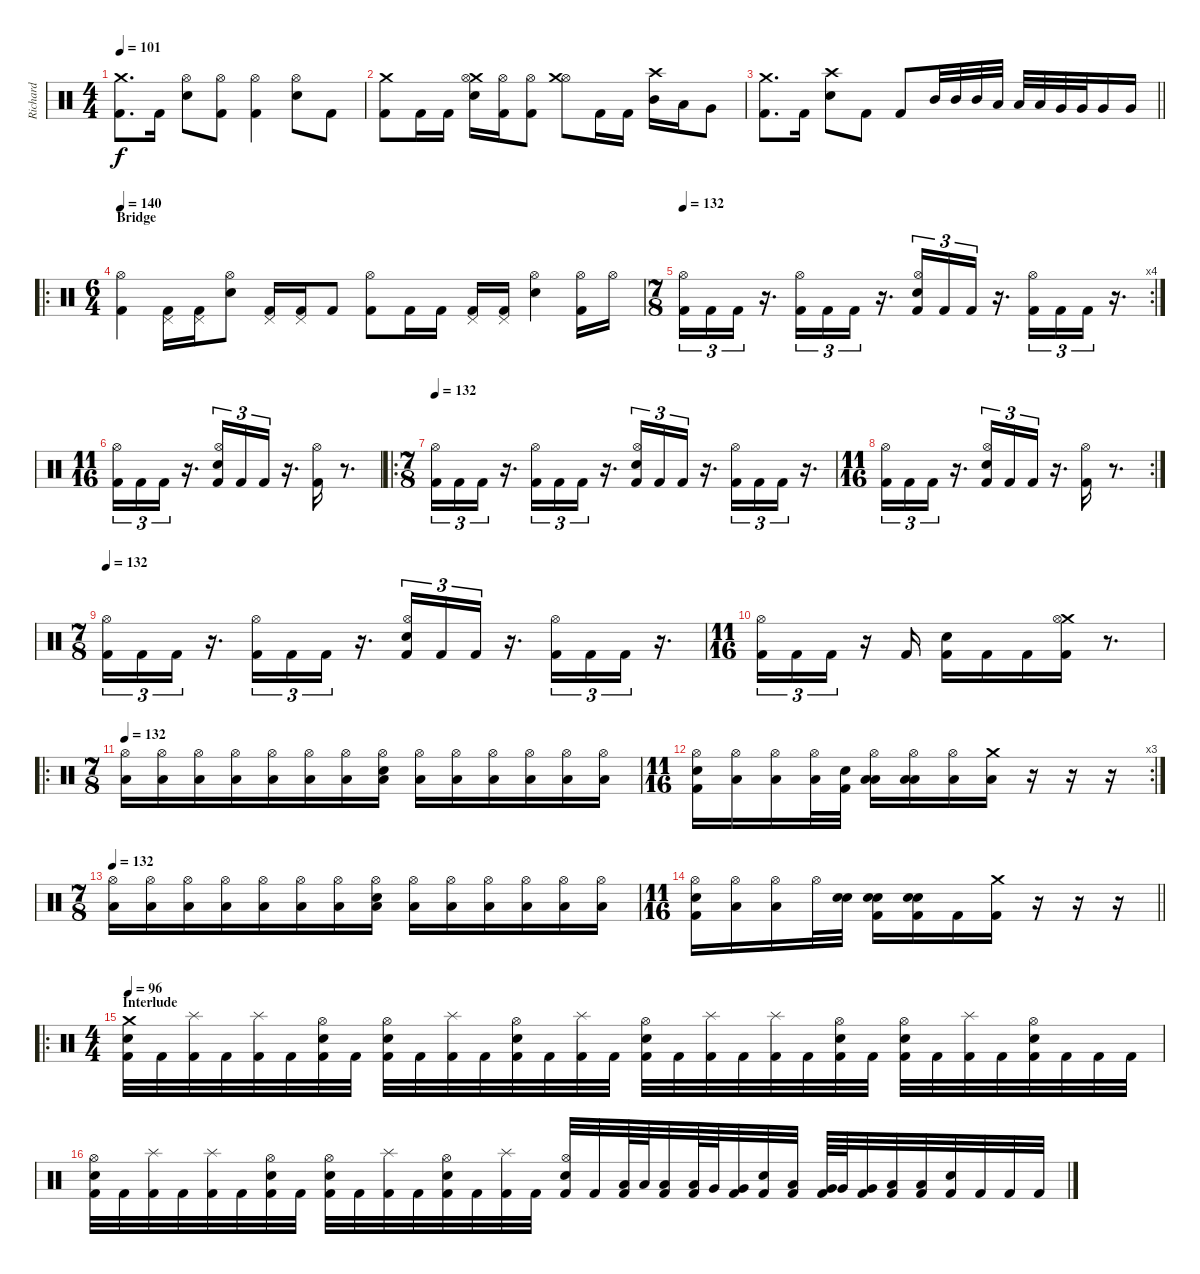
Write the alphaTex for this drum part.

\track ("Richard" "Richard") {instrument percussion}
\staff {score}
\articulation defaults
\ts (4 4)
\tempo 101
\clef neutral
\ks c
("Crash medium (hit)" "Kick (hit) 2").8{d dy f} "Kick (hit) 2".16 ("Hi-Hat (open)" "Electric Snare (hit)").8 ("Hi-Hat (open)" "Kick (hit) 2").8 ("Hi-Hat (open)" "Kick (hit) 2").4 ("Hi-Hat (open)" "Electric Snare (hit)").8 "Kick (hit) 2".8 |
("Crash medium (hit)" "Kick (hit) 2").8 "Kick (hit) 2".16 "Kick (hit) 2".16 ("Crash medium (hit)" "Hi-Hat (open)" "Electric Snare (hit)").16 ("Hi-Hat (open)" "Kick (hit) 2").16 ("Hi-Hat (open)" "Kick (hit) 2").8 ("Hi-Hat (open)" "Crash medium (hit)").8 "Kick (hit) 2".16 "Kick (hit) 2".16 ("Crash high (hit)" "Mid Tom (hit)").16 "Low Tom (hit)".16 "Very Low Tom (hit)".8 |
\barLineRight lightlight
("Crash medium (hit)" "Kick (hit) 2").8{d} "Kick (hit) 2".16 ("Crash high (hit)" "Electric Snare (hit)").8 "Kick (hit) 2".8 "Kick (hit) 2".8 "Mid Tom (hit)".32 "Mid Tom (hit)".32 "Mid Tom (hit)".32 "Low Tom (hit)".32 "Low Tom (hit)".32 "Low Tom (hit)".32 "Very Low Tom (hit)".32 "Very Low Tom (hit)".32 "Very Low Tom (hit)".16 "Very Low Tom (hit)".16 |
\ro
\ts (6 4)
\section ("" "Bridge")
\tempo 140
("Hi-Hat (open)" "Kick (hit) 2").4 ("Pedal Hi-Hat (hit)" "Kick (hit) 2").16 ("Pedal Hi-Hat (hit)" "Kick (hit) 2").16 ("Hi-Hat (open)" "Electric Snare (hit)").8 ("Pedal Hi-Hat (hit)" "Kick (hit) 2").16 ("Pedal Hi-Hat (hit)" "Kick (hit) 2").16 "Kick (hit) 2".8 ("Hi-Hat (open)" "Kick (hit) 2").8 "Kick (hit) 2".16 "Kick (hit) 2".16 ("Pedal Hi-Hat (hit)" "Kick (hit) 2").16 ("Pedal Hi-Hat (hit)" "Kick (hit) 2").16 ("Hi-Hat (open)" "Electric Snare (hit)").4 ("Hi-Hat (open)" "Kick (hit) 2").16 "Hi-Hat (open)".16 |
\rc 4
\ts (7 8)
\tempo 132
("Hi-Hat (open)" "Kick (hit) 2").16{tu (3 2)} "Kick (hit) 2".16{tu (3 2)} "Kick (hit) 2".16{tu (3 2)} r.16{d} ("Hi-Hat (open)" "Kick (hit) 2").16{tu (3 2)} "Kick (hit) 2".16{tu (3 2)} "Kick (hit) 2".16{tu (3 2)} r.16{d} ("Hi-Hat (open)" "Electric Snare (hit)" "Kick (hit) 2").16{tu (3 2)} "Kick (hit) 2".16{tu (3 2)} "Kick (hit) 2".16{tu (3 2)} r.16{d} ("Hi-Hat (open)" "Kick (hit) 2").16{tu (3 2)} "Kick (hit) 2".16{tu (3 2)} "Kick (hit) 2".16{tu (3 2)} r.16{d} |
\ts (11 16)
("Hi-Hat (open)" "Kick (hit) 2").16{tu (3 2)} "Kick (hit) 2".16{tu (3 2)} "Kick (hit) 2".16{tu (3 2)} r.16{d} ("Electric Snare (hit)" "Hi-Hat (open)" "Kick (hit) 2").16{tu (3 2)} "Kick (hit) 2".16{tu (3 2)} "Kick (hit) 2".16{tu (3 2)} r.16{d} ("Hi-Hat (open)" "Kick (hit) 2").16 r.8{d} |
\ro
\ts (7 8)
\tempo 132
("Hi-Hat (open)" "Kick (hit) 2").16{tu (3 2)} "Kick (hit) 2".16{tu (3 2)} "Kick (hit) 2".16{tu (3 2)} r.16{d} ("Hi-Hat (open)" "Kick (hit) 2").16{tu (3 2)} "Kick (hit) 2".16{tu (3 2)} "Kick (hit) 2".16{tu (3 2)} r.16{d} ("Hi-Hat (open)" "Electric Snare (hit)" "Kick (hit) 2").16{tu (3 2)} "Kick (hit) 2".16{tu (3 2)} "Kick (hit) 2".16{tu (3 2)} r.16{d} ("Hi-Hat (open)" "Kick (hit) 2").16{tu (3 2)} "Kick (hit) 2".16{tu (3 2)} "Kick (hit) 2".16{tu (3 2)} r.16{d} |
\rc 2
\ts (11 16)
("Hi-Hat (open)" "Kick (hit) 2").16{tu (3 2)} "Kick (hit) 2".16{tu (3 2)} "Kick (hit) 2".16{tu (3 2)} r.16{d} ("Electric Snare (hit)" "Hi-Hat (open)" "Kick (hit) 2").16{tu (3 2)} "Kick (hit) 2".16{tu (3 2)} "Kick (hit) 2".16{tu (3 2)} r.16{d} ("Hi-Hat (open)" "Kick (hit) 2").16 r.8{d} |
\ts (7 8)
\tempo 132
("Hi-Hat (open)" "Kick (hit) 2").16{tu (3 2)} "Kick (hit) 2".16{tu (3 2)} "Kick (hit) 2".16{tu (3 2)} r.16{d} ("Hi-Hat (open)" "Kick (hit) 2").16{tu (3 2)} "Kick (hit) 2".16{tu (3 2)} "Kick (hit) 2".16{tu (3 2)} r.16{d} ("Hi-Hat (open)" "Electric Snare (hit)" "Kick (hit) 2").16{tu (3 2)} "Kick (hit) 2".16{tu (3 2)} "Kick (hit) 2".16{tu (3 2)} r.16{d} ("Hi-Hat (open)" "Kick (hit) 2").16{tu (3 2)} "Kick (hit) 2".16{tu (3 2)} "Kick (hit) 2".16{tu (3 2)} r.16{d} |
\ts (11 16)
("Hi-Hat (open)" "Kick (hit) 2").16{tu (3 2)} "Kick (hit) 2".16{tu (3 2)} "Kick (hit) 2".16{tu (3 2)} r.16 "Kick (hit) 2".16 ("Electric Snare (hit)" "Kick (hit) 2").16 "Kick (hit) 2".16 "Kick (hit) 2".16 ("Crash medium (hit)" "Hi-Hat (open)" "Kick (hit) 2").16 r.8{d} |
\ro
\ts (7 8)
\tempo 132
("Hi-Hat (open)" "Low Floor Tom (hit)").16 ("Hi-Hat (open)" "Low Floor Tom (hit)").16 ("Hi-Hat (open)" "Low Floor Tom (hit)").16 ("Hi-Hat (open)" "Low Floor Tom (hit)").16 ("Hi-Hat (open)" "Low Floor Tom (hit)").16 ("Hi-Hat (open)" "Low Floor Tom (hit)").16 ("Hi-Hat (open)" "Low Floor Tom (hit)").16 ("Hi-Hat (open)" "Electric Snare (hit)" "Low Floor Tom (hit)").16 ("Hi-Hat (open)" "Low Floor Tom (hit)").16 ("Hi-Hat (open)" "Low Floor Tom (hit)").16 ("Hi-Hat (open)" "Low Floor Tom (hit)").16 ("Hi-Hat (open)" "Low Floor Tom (hit)").16 ("Hi-Hat (open)" "Low Floor Tom (hit)").16 ("Hi-Hat (open)" "Low Floor Tom (hit)").16 |
\rc 3
\ts (11 16)
("Hi-Hat (open)" "Electric Snare (hit)" "Kick (hit) 2").16 ("Hi-Hat (open)" "Low Floor Tom (hit)").16 ("Hi-Hat (open)" "Low Floor Tom (hit)").16 ("Hi-Hat (open)" "Low Floor Tom (hit)").32 ("Kick (hit) 2" "Electric Snare (hit)").32 ("Hi-Hat (open)" "Low Tom (hit)" "Low Floor Tom (hit)").16 ("Hi-Hat (open)" "Low Tom (hit)" "Low Floor Tom (hit)").16 ("Hi-Hat (open)" "Low Floor Tom (hit)").16 ("Crash medium (hit)" "Low Floor Tom (hit)").16 r.16 r.16 r.16 |
\ts (7 8)
\tempo 132
("Hi-Hat (open)" "Low Floor Tom (hit)").16 ("Hi-Hat (open)" "Low Floor Tom (hit)").16 ("Hi-Hat (open)" "Low Floor Tom (hit)").16 ("Hi-Hat (open)" "Low Floor Tom (hit)").16 ("Hi-Hat (open)" "Low Floor Tom (hit)").16 ("Hi-Hat (open)" "Low Floor Tom (hit)").16 ("Hi-Hat (open)" "Low Floor Tom (hit)").16 ("Hi-Hat (open)" "Electric Snare (hit)" "Low Floor Tom (hit)").16 ("Hi-Hat (open)" "Low Floor Tom (hit)").16 ("Hi-Hat (open)" "Low Floor Tom (hit)").16 ("Hi-Hat (open)" "Low Floor Tom (hit)").16 ("Hi-Hat (open)" "Low Floor Tom (hit)").16 ("Hi-Hat (open)" "Low Floor Tom (hit)").16 ("Hi-Hat (open)" "Low Floor Tom (hit)").16 |
\ts (11 16)
\barLineRight lightlight
("Hi-Hat (open)" "Electric Snare (hit)" "Kick (hit) 2").16 ("Hi-Hat (open)" "Low Floor Tom (hit)").16 ("Hi-Hat (open)" "Low Floor Tom (hit)").16 "Hi-Hat (open)".32 ("Snare (hit) 2" "Electric Snare (hit)").32 ("Electric Snare (hit)" "Snare (hit) 2" "Kick (hit) 2").16 ("Snare (hit) 2" "Electric Snare (hit)" "Kick (hit) 2").16 "Kick (hit) 2".16 ("Crash medium (hit)" "Kick (hit) 2").16 r.16 r.16 r.16 |
\ro
\ts (4 4)
\section ("" "Interlude")
\tempo 96
("Crash medium (hit)" "Electric Snare (hit)" "Kick (hit) 2").32 "Kick (hit) 2".32 ("Splash (hit)" "Kick (hit) 2").32 "Kick (hit) 2".32 ("Splash (hit)" "Kick (hit) 2").32 "Kick (hit) 2".32 ("Hi-Hat (open)" "Electric Snare (hit)" "Kick (hit) 2").32 "Kick (hit) 2".32 ("Hi-Hat (open)" "Electric Snare (hit)" "Kick (hit) 2").32 "Kick (hit) 2".32 ("Splash (hit)" "Kick (hit) 2").32 "Kick (hit) 2".32 ("Hi-Hat (open)" "Electric Snare (hit)" "Kick (hit) 2").32 "Kick (hit) 2".32 ("Splash (hit)" "Kick (hit) 2").32 "Kick (hit) 2".32 ("Hi-Hat (open)" "Electric Snare (hit)" "Kick (hit) 2").32 "Kick (hit) 2".32 ("Splash (hit)" "Kick (hit) 2").32 "Kick (hit) 2".32 ("Splash (hit)" "Kick (hit) 2").32 "Kick (hit) 2".32 ("Hi-Hat (open)" "Electric Snare (hit)" "Kick (hit) 2").32 "Kick (hit) 2".32 ("Hi-Hat (open)" "Electric Snare (hit)" "Kick (hit) 2").32 "Kick (hit) 2".32 ("Splash (hit)" "Kick (hit) 2").32 "Kick (hit) 2".32 ("Hi-Hat (open)" "Electric Snare (hit)" "Kick (hit) 2").32 "Kick (hit) 2".32 "Kick (hit) 2".32 "Kick (hit) 2".32 |
("Hi-Hat (open)" "Electric Snare (hit)" "Kick (hit) 2").32 "Kick (hit) 2".32 ("Splash (hit)" "Kick (hit) 2").32 "Kick (hit) 2".32 ("Splash (hit)" "Kick (hit) 2").32 "Kick (hit) 2".32 ("Hi-Hat (open)" "Electric Snare (hit)" "Kick (hit) 2").32 "Kick (hit) 2".32 ("Hi-Hat (open)" "Electric Snare (hit)" "Kick (hit) 2").32 "Kick (hit) 2".32 ("Splash (hit)" "Kick (hit) 2").32 "Kick (hit) 2".32 ("Hi-Hat (open)" "Electric Snare (hit)" "Kick (hit) 2").32 "Kick (hit) 2".32 ("Splash (hit)" "Kick (hit) 2").32 "Kick (hit) 2".32 ("Hi-Hat (open)" "Electric Snare (hit)" "Kick (hit) 2").32 "Kick (hit) 2".32 ("Low Tom (hit)" "Kick (hit) 2").64 "Low Tom (hit)".64 ("Low Tom (hit)" "Kick (hit) 2").32 ("Low Tom (hit)" "Kick (hit) 2").64 "Very Low Tom (hit)".64 ("Very Low Tom (hit)" "Kick (hit) 2").32 ("Electric Snare (hit)" "Kick (hit) 2").32 ("Low Tom (hit)" "Kick (hit) 2").32 ("Very Low Tom (hit)" "Kick (hit) 2").64 "Very Low Tom (hit)".64 ("Very Low Tom (hit)" "Kick (hit) 2").32 ("Low Floor Tom (hit)" "Kick (hit) 2").32 ("Low Floor Tom (hit)" "Kick (hit) 2").32 ("Electric Snare (hit)" "Kick (hit) 2").32 "Kick (hit) 2".32 "Kick (hit) 2".32 "Kick (hit) 2".32
